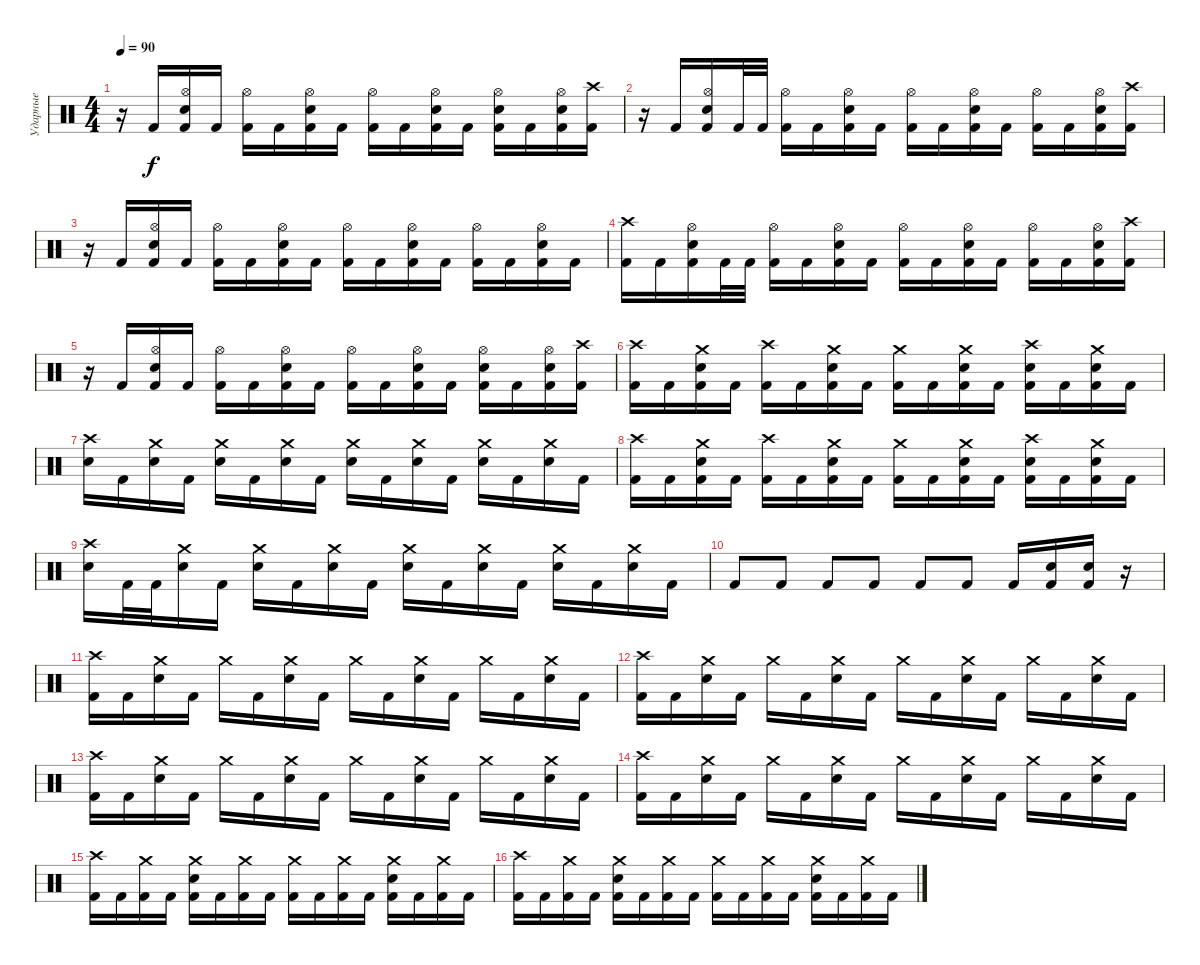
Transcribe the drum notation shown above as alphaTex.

\track ("Ударные" "Ударные") {instrument percussion}
\staff {score}
\articulation defaults
\ts (4 4)
\tempo 90
\clef neutral
\ks c
r.16{dy f} "Kick (hit) 2".16 ("Hi-Hat (open)" "Electric Snare (hit)" "Kick (hit) 2").16 "Kick (hit) 2".16 ("Hi-Hat (open)" "Kick (hit) 2").16 "Kick (hit) 2".16 ("Hi-Hat (open)" "Electric Snare (hit)" "Kick (hit) 2").16 "Kick (hit) 2".16 ("Hi-Hat (open)" "Kick (hit) 2").16 "Kick (hit) 2".16 ("Hi-Hat (open)" "Electric Snare (hit)" "Kick (hit) 2").16 "Kick (hit) 2".16 ("Hi-Hat (open)" "Electric Snare (hit)" "Kick (hit) 2").16 "Kick (hit) 2".16 ("Hi-Hat (open)" "Electric Snare (hit)" "Kick (hit) 2").16 ("Crash high (hit)" "Kick (hit) 2").16 |
r.16 "Kick (hit) 2".16 ("Hi-Hat (open)" "Electric Snare (hit)" "Kick (hit) 2").16 "Kick (hit) 2".32 "Kick (hit) 2".32 ("Hi-Hat (open)" "Kick (hit) 2").16 "Kick (hit) 2".16 ("Hi-Hat (open)" "Electric Snare (hit)" "Kick (hit) 2").16 "Kick (hit) 2".16 ("Hi-Hat (open)" "Kick (hit) 2").16 "Kick (hit) 2".16 ("Hi-Hat (open)" "Electric Snare (hit)" "Kick (hit) 2").16 "Kick (hit) 2".16 ("Hi-Hat (open)" "Kick (hit) 2").16 "Kick (hit) 2".16 ("Hi-Hat (open)" "Electric Snare (hit)" "Kick (hit) 2").16 ("Crash high (hit)" "Kick (hit) 2").16 |
r.16 "Kick (hit) 2".16 ("Hi-Hat (open)" "Electric Snare (hit)" "Kick (hit) 2").16 "Kick (hit) 2".16 ("Hi-Hat (open)" "Kick (hit) 2").16 "Kick (hit) 2".16 ("Hi-Hat (open)" "Electric Snare (hit)" "Kick (hit) 2").16 "Kick (hit) 2".16 ("Hi-Hat (open)" "Kick (hit) 2").16 "Kick (hit) 2".16 ("Hi-Hat (open)" "Electric Snare (hit)" "Kick (hit) 2").16 "Kick (hit) 2".16 ("Hi-Hat (open)" "Kick (hit) 2").16 "Kick (hit) 2".16 ("Hi-Hat (open)" "Electric Snare (hit)" "Kick (hit) 2").16 "Kick (hit) 2".16 |
("Crash high (hit)" "Kick (hit) 2").16 "Kick (hit) 2".16 ("Hi-Hat (open)" "Electric Snare (hit)" "Kick (hit) 2").16 "Kick (hit) 2".32 "Kick (hit) 2".32 ("Hi-Hat (open)" "Kick (hit) 2").16 "Kick (hit) 2".16 ("Hi-Hat (open)" "Electric Snare (hit)" "Kick (hit) 2").16 "Kick (hit) 2".16 ("Hi-Hat (open)" "Kick (hit) 2").16 "Kick (hit) 2".16 ("Hi-Hat (open)" "Electric Snare (hit)" "Kick (hit) 2").16 "Kick (hit) 2".16 ("Hi-Hat (open)" "Kick (hit) 2").16 "Kick (hit) 2".16 ("Hi-Hat (open)" "Electric Snare (hit)" "Kick (hit) 2").16 ("Crash high (hit)" "Kick (hit) 2").16 |
r.16 "Kick (hit) 2".16 ("Hi-Hat (open)" "Electric Snare (hit)" "Kick (hit) 2").16 "Kick (hit) 2".16 ("Hi-Hat (open)" "Kick (hit) 2").16 "Kick (hit) 2".16 ("Hi-Hat (open)" "Electric Snare (hit)" "Kick (hit) 2").16 "Kick (hit) 2".16 ("Hi-Hat (open)" "Kick (hit) 2").16 "Kick (hit) 2".16 ("Hi-Hat (open)" "Electric Snare (hit)" "Kick (hit) 2").16 "Kick (hit) 2".16 ("Hi-Hat (open)" "Electric Snare (hit)" "Kick (hit) 2").16 "Kick (hit) 2".16 ("Hi-Hat (open)" "Electric Snare (hit)" "Kick (hit) 2").16 ("Crash high (hit)" "Kick (hit) 2").16 |
("Crash high (hit)" "Kick (hit) 2").16 "Kick (hit) 2".16 ("Crash medium (hit)" "Electric Snare (hit)" "Kick (hit) 2").16 "Kick (hit) 2".16 ("Crash high (hit)" "Kick (hit) 2").16 "Kick (hit) 2".16 ("Crash medium (hit)" "Electric Snare (hit)" "Kick (hit) 2").16 "Kick (hit) 2".16 ("Crash medium (hit)" "Kick (hit) 2").16 "Kick (hit) 2".16 ("Crash medium (hit)" "Electric Snare (hit)" "Kick (hit) 2").16 "Kick (hit) 2".16 ("Crash high (hit)" "Electric Snare (hit)" "Kick (hit) 2").16 "Kick (hit) 2".16 ("Crash medium (hit)" "Electric Snare (hit)" "Kick (hit) 2").16 "Kick (hit) 2".16 |
("Crash high (hit)" "Electric Snare (hit)").16 "Kick (hit) 2".16 ("Crash medium (hit)" "Electric Snare (hit)").16 "Kick (hit) 2".16 ("Crash medium (hit)" "Electric Snare (hit)").16 "Kick (hit) 2".16 ("Crash medium (hit)" "Electric Snare (hit)").16 "Kick (hit) 2".16 ("Crash medium (hit)" "Electric Snare (hit)").16 "Kick (hit) 2".16 ("Crash medium (hit)" "Electric Snare (hit)").16 "Kick (hit) 2".16 ("Crash medium (hit)" "Electric Snare (hit)").16 "Kick (hit) 2".16 ("Crash medium (hit)" "Electric Snare (hit)").16 "Kick (hit) 2".16 |
("Crash high (hit)" "Kick (hit) 2").16 "Kick (hit) 2".16 ("Crash medium (hit)" "Electric Snare (hit)" "Kick (hit) 2").16 "Kick (hit) 2".16 ("Crash high (hit)" "Kick (hit) 2").16 "Kick (hit) 2".16 ("Crash medium (hit)" "Electric Snare (hit)" "Kick (hit) 2").16 "Kick (hit) 2".16 ("Crash medium (hit)" "Kick (hit) 2").16 "Kick (hit) 2".16 ("Crash medium (hit)" "Electric Snare (hit)" "Kick (hit) 2").16 "Kick (hit) 2".16 ("Crash high (hit)" "Electric Snare (hit)" "Kick (hit) 2").16 "Kick (hit) 2".16 ("Crash medium (hit)" "Electric Snare (hit)" "Kick (hit) 2").16 "Kick (hit) 2".16 |
("Crash high (hit)" "Electric Snare (hit)").16 "Kick (hit) 2".32 "Kick (hit) 2".32 ("Crash medium (hit)" "Electric Snare (hit)").16 "Kick (hit) 2".16 ("Crash medium (hit)" "Electric Snare (hit)").16 "Kick (hit) 2".16 ("Crash medium (hit)" "Electric Snare (hit)").16 "Kick (hit) 2".16 ("Crash medium (hit)" "Electric Snare (hit)").16 "Kick (hit) 2".16 ("Crash medium (hit)" "Electric Snare (hit)").16 "Kick (hit) 2".16 ("Crash medium (hit)" "Electric Snare (hit)").16 "Kick (hit) 2".16 ("Crash medium (hit)" "Electric Snare (hit)").16 "Kick (hit) 2".16 |
"Kick (hit) 2".8 "Kick (hit) 2".8 "Kick (hit) 2".8 "Kick (hit) 2".8 "Kick (hit) 2".8 "Kick (hit) 2".8 "Kick (hit) 2".16 ("Electric Snare (hit)" "Kick (hit) 2").16 ("Electric Snare (hit)" "Kick (hit) 2").16 r.16 |
("Crash high (hit)" "Kick (hit) 2").16 "Kick (hit) 2".16 ("Crash medium (hit)" "Electric Snare (hit)").16 "Kick (hit) 2".16 "Crash medium (hit)".16 "Kick (hit) 2".16 ("Crash medium (hit)" "Electric Snare (hit)").16 "Kick (hit) 2".16 "Crash medium (hit)".16 "Kick (hit) 2".16 ("Crash medium (hit)" "Electric Snare (hit)").16 "Kick (hit) 2".16 "Crash medium (hit)".16 "Kick (hit) 2".16 ("Crash medium (hit)" "Electric Snare (hit)").16 "Kick (hit) 2".16 |
("Crash high (hit)" "Kick (hit) 2").16 "Kick (hit) 2".16 ("Crash medium (hit)" "Electric Snare (hit)").16 "Kick (hit) 2".16 "Crash medium (hit)".16 "Kick (hit) 2".16 ("Crash medium (hit)" "Electric Snare (hit)").16 "Kick (hit) 2".16 "Crash medium (hit)".16 "Kick (hit) 2".16 ("Crash medium (hit)" "Electric Snare (hit)").16 "Kick (hit) 2".16 "Crash medium (hit)".16 "Kick (hit) 2".16 ("Crash medium (hit)" "Electric Snare (hit)").16 "Kick (hit) 2".16 |
("Crash high (hit)" "Kick (hit) 2").16 "Kick (hit) 2".16 ("Crash medium (hit)" "Electric Snare (hit)").16 "Kick (hit) 2".16 "Crash medium (hit)".16 "Kick (hit) 2".16 ("Crash medium (hit)" "Electric Snare (hit)").16 "Kick (hit) 2".16 "Crash medium (hit)".16 "Kick (hit) 2".16 ("Crash medium (hit)" "Electric Snare (hit)").16 "Kick (hit) 2".16 "Crash medium (hit)".16 "Kick (hit) 2".16 ("Crash medium (hit)" "Electric Snare (hit)").16 "Kick (hit) 2".16 |
("Crash high (hit)" "Kick (hit) 2").16 "Kick (hit) 2".16 ("Crash medium (hit)" "Electric Snare (hit)").16 "Kick (hit) 2".16 "Crash medium (hit)".16 "Kick (hit) 2".16 ("Crash medium (hit)" "Electric Snare (hit)").16 "Kick (hit) 2".16 "Crash medium (hit)".16 "Kick (hit) 2".16 ("Crash medium (hit)" "Electric Snare (hit)").16 "Kick (hit) 2".16 "Crash medium (hit)".16 "Kick (hit) 2".16 ("Crash medium (hit)" "Electric Snare (hit)").16 "Kick (hit) 2".16 |
("Crash high (hit)" "Kick (hit) 2").16 "Kick (hit) 2".16 ("Crash medium (hit)" "Kick (hit) 2").16 "Kick (hit) 2".16 ("Crash medium (hit)" "Electric Snare (hit)" "Kick (hit) 2").16 "Kick (hit) 2".16 ("Crash medium (hit)" "Kick (hit) 2").16 "Kick (hit) 2".16 ("Crash medium (hit)" "Kick (hit) 2").16 "Kick (hit) 2".16 ("Crash medium (hit)" "Kick (hit) 2").16 "Kick (hit) 2".16 ("Crash medium (hit)" "Electric Snare (hit)" "Kick (hit) 2").16 "Kick (hit) 2".16 ("Crash medium (hit)" "Kick (hit) 2").16 "Kick (hit) 2".16 |
("Crash high (hit)" "Kick (hit) 2").16 "Kick (hit) 2".16 ("Crash medium (hit)" "Kick (hit) 2").16 "Kick (hit) 2".16 ("Crash medium (hit)" "Electric Snare (hit)" "Kick (hit) 2").16 "Kick (hit) 2".16 ("Crash medium (hit)" "Kick (hit) 2").16 "Kick (hit) 2".16 ("Crash medium (hit)" "Kick (hit) 2").16 "Kick (hit) 2".16 ("Crash medium (hit)" "Kick (hit) 2").16 "Kick (hit) 2".16 ("Crash medium (hit)" "Electric Snare (hit)" "Kick (hit) 2").16 "Kick (hit) 2".16 ("Crash medium (hit)" "Kick (hit) 2").16 "Kick (hit) 2".16
